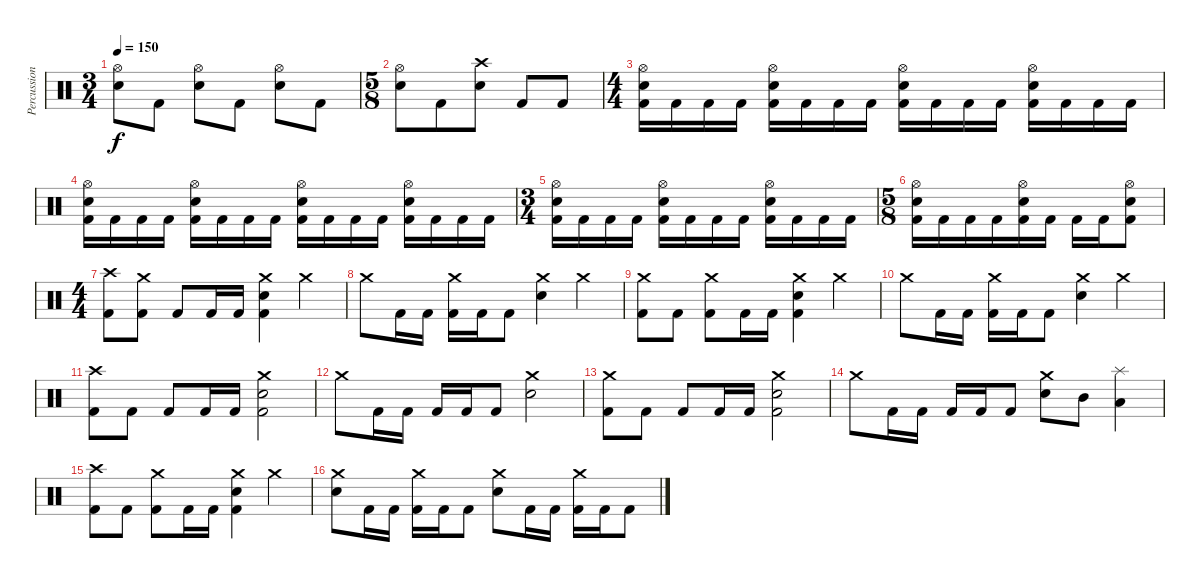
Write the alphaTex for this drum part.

\track ("Percussion" "Percussion") {instrument percussion}
\staff {score}
\articulation defaults
\ts (3 4)
\tempo 150
\clef neutral
\ks c
("Hi-Hat (open)" "Electric Snare (hit)").8{dy f} "Kick (hit) 2".8 ("Hi-Hat (open)" "Electric Snare (hit)").8 "Kick (hit) 2".8 ("Hi-Hat (open)" "Electric Snare (hit)").8 "Kick (hit) 2".8 |
\ts (5 8)
("Hi-Hat (open)" "Electric Snare (hit)").8 "Kick (hit) 2".8 ("Crash high (hit)" "Electric Snare (hit)").8 "Kick (hit) 2".8 "Kick (hit) 2".8 |
\ts (4 4)
("Hi-Hat (open)" "Electric Snare (hit)" "Kick (hit) 2").16 "Kick (hit) 2".16 "Kick (hit) 2".16 "Kick (hit) 2".16 ("Hi-Hat (open)" "Electric Snare (hit)" "Kick (hit) 2").16 "Kick (hit) 2".16 "Kick (hit) 2".16 "Kick (hit) 2".16 ("Hi-Hat (open)" "Electric Snare (hit)" "Kick (hit) 2").16 "Kick (hit) 2".16 "Kick (hit) 2".16 "Kick (hit) 2".16 ("Hi-Hat (open)" "Electric Snare (hit)" "Kick (hit) 2").16 "Kick (hit) 2".16 "Kick (hit) 2".16 "Kick (hit) 2".16 |
("Hi-Hat (open)" "Electric Snare (hit)" "Kick (hit) 2").16 "Kick (hit) 2".16 "Kick (hit) 2".16 "Kick (hit) 2".16 ("Hi-Hat (open)" "Electric Snare (hit)" "Kick (hit) 2").16 "Kick (hit) 2".16 "Kick (hit) 2".16 "Kick (hit) 2".16 ("Hi-Hat (open)" "Electric Snare (hit)" "Kick (hit) 2").16 "Kick (hit) 2".16 "Kick (hit) 2".16 "Kick (hit) 2".16 ("Hi-Hat (open)" "Electric Snare (hit)" "Kick (hit) 2").16 "Kick (hit) 2".16 "Kick (hit) 2".16 "Kick (hit) 2".16 |
\ts (3 4)
("Hi-Hat (open)" "Electric Snare (hit)" "Kick (hit) 2").16 "Kick (hit) 2".16 "Kick (hit) 2".16 "Kick (hit) 2".16 ("Hi-Hat (open)" "Electric Snare (hit)" "Kick (hit) 2").16 "Kick (hit) 2".16 "Kick (hit) 2".16 "Kick (hit) 2".16 ("Hi-Hat (open)" "Electric Snare (hit)" "Kick (hit) 2").16 "Kick (hit) 2".16 "Kick (hit) 2".16 "Kick (hit) 2".16 |
\ts (5 8)
("Hi-Hat (open)" "Electric Snare (hit)" "Kick (hit) 2").16 "Kick (hit) 2".16 "Kick (hit) 2".16 "Kick (hit) 2".16 ("Hi-Hat (open)" "Electric Snare (hit)" "Kick (hit) 2").16 "Kick (hit) 2".16 "Kick (hit) 2".16 "Kick (hit) 2".16 ("Hi-Hat (open)" "Electric Snare (hit)" "Kick (hit) 2").8 |
\ts (4 4)
("Crash high (hit)" "Kick (hit) 2").8 ("Crash medium (hit)" "Kick (hit) 2").8 "Kick (hit) 2".8 "Kick (hit) 2".16 "Kick (hit) 2".16 ("Crash medium (hit)" "Electric Snare (hit)" "Kick (hit) 2").4 "Crash medium (hit)".4 |
"Crash medium (hit)".8 "Kick (hit) 2".16 "Kick (hit) 2".16 ("Crash medium (hit)" "Kick (hit) 2").16 "Kick (hit) 2".16 "Kick (hit) 2".8 ("Crash medium (hit)" "Electric Snare (hit)").4 "Crash medium (hit)".4 |
("Crash medium (hit)" "Kick (hit) 2").8 "Kick (hit) 2".8 ("Crash medium (hit)" "Kick (hit) 2").8 "Kick (hit) 2".16 "Kick (hit) 2".16 ("Crash medium (hit)" "Electric Snare (hit)" "Kick (hit) 2").4 "Crash medium (hit)".4 |
"Crash medium (hit)".8 "Kick (hit) 2".16 "Kick (hit) 2".16 ("Crash medium (hit)" "Kick (hit) 2").16 "Kick (hit) 2".16 "Kick (hit) 2".8 ("Crash medium (hit)" "Electric Snare (hit)").4 "Crash medium (hit)".4 |
("Crash high (hit)" "Kick (hit) 2").8 "Kick (hit) 2".8 "Kick (hit) 2".8 "Kick (hit) 2".16 "Kick (hit) 2".16 ("Crash medium (hit)" "Electric Snare (hit)" "Kick (hit) 2").2 |
"Crash medium (hit)".8 "Kick (hit) 2".16 "Kick (hit) 2".16 "Kick (hit) 2".16 "Kick (hit) 2".16 "Kick (hit) 2".8 ("Crash medium (hit)" "Electric Snare (hit)").2 |
("Crash medium (hit)" "Kick (hit) 2").8 "Kick (hit) 2".8 "Kick (hit) 2".8 "Kick (hit) 2".16 "Kick (hit) 2".16 ("Crash medium (hit)" "Electric Snare (hit)" "Kick (hit) 2").2 |
"Crash medium (hit)".8 "Kick (hit) 2".16 "Kick (hit) 2".16 "Kick (hit) 2".16 "Kick (hit) 2".16 "Kick (hit) 2".8 ("Crash medium (hit)" "Electric Snare (hit)").8 "Mid Tom (hit)".8 ("Splash (hit)" "Low Tom (hit)").4 |
("Crash high (hit)" "Kick (hit) 2").8 "Kick (hit) 2".8 ("Crash medium (hit)" "Kick (hit) 2").8 "Kick (hit) 2".16 "Kick (hit) 2".16 ("Crash medium (hit)" "Electric Snare (hit)" "Kick (hit) 2").4 "Crash medium (hit)".4 |
("Crash medium (hit)" "Electric Snare (hit)").8 "Kick (hit) 2".16 "Kick (hit) 2".16 ("Crash medium (hit)" "Kick (hit) 2").16 "Kick (hit) 2".16 "Kick (hit) 2".8 ("Crash medium (hit)" "Electric Snare (hit)").8 "Kick (hit) 2".16 "Kick (hit) 2".16 ("Crash medium (hit)" "Kick (hit) 2").16 "Kick (hit) 2".16 "Kick (hit) 2".8
